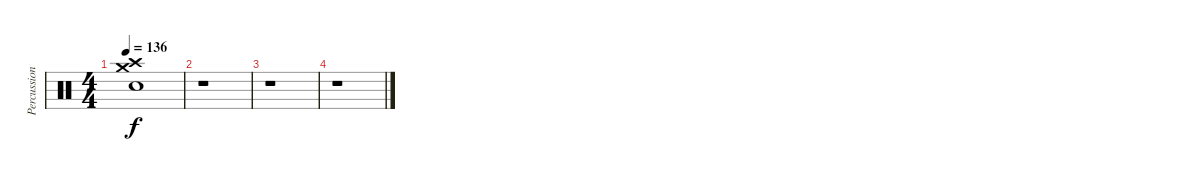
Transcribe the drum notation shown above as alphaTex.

\track ("Percussions" "Percussion") {instrument percussion}
\staff {score}
\articulation defaults
\ts (4 4)
\tempo 136
\clef neutral
\ks c
("Crash medium (hit)" "Crash high (hit)" "Snare (hit) 2").1{dy f} |
r.1 |
r.1 |
r.1
